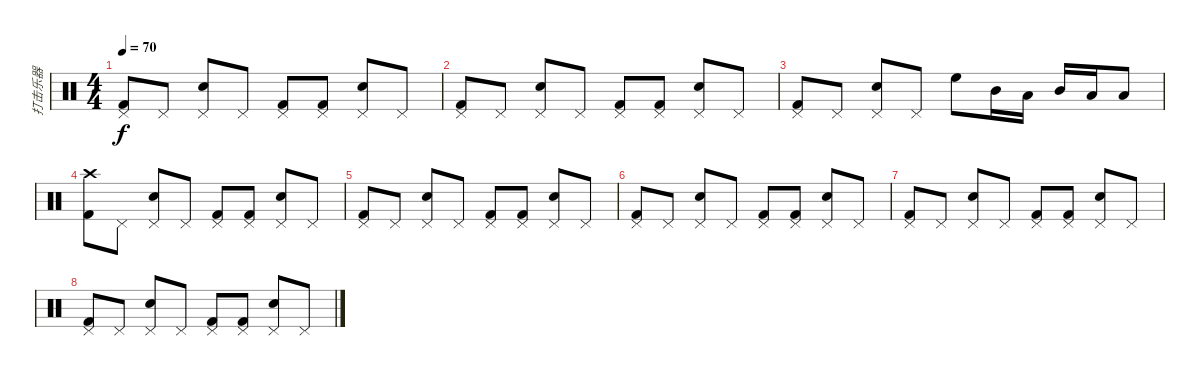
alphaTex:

\track ("打击乐器" "打击乐器") {instrument percussion}
\staff {score}
\articulation defaults
\ts (4 4)
\tempo 70
\clef neutral
\ks c
("Pedal Hi-Hat (hit)" "Kick (hit) 2").8{dy f} "Pedal Hi-Hat (hit)".8 ("Pedal Hi-Hat (hit)" "Snare (hit) 2").8 "Pedal Hi-Hat (hit)".8 ("Pedal Hi-Hat (hit)" "Kick (hit) 2").8 ("Pedal Hi-Hat (hit)" "Kick (hit) 2").8 ("Pedal Hi-Hat (hit)" "Snare (hit) 2").8 "Pedal Hi-Hat (hit)".8 |
("Pedal Hi-Hat (hit)" "Kick (hit) 2").8 "Pedal Hi-Hat (hit)".8 ("Pedal Hi-Hat (hit)" "Snare (hit) 2").8 "Pedal Hi-Hat (hit)".8 ("Pedal Hi-Hat (hit)" "Kick (hit) 2").8 ("Pedal Hi-Hat (hit)" "Kick (hit) 2").8 ("Pedal Hi-Hat (hit)" "Snare (hit) 2").8 "Pedal Hi-Hat (hit)".8 |
("Pedal Hi-Hat (hit)" "Kick (hit) 2").8 "Pedal Hi-Hat (hit)".8 ("Pedal Hi-Hat (hit)" "Snare (hit) 2").8 "Pedal Hi-Hat (hit)".8 "High Floor Tom (hit)".8 "Mid Tom (hit)".16 "Low Tom (hit)".16 "Mid Tom (hit)".16 "Low Tom (hit)".16 "Low Floor Tom (hit)".8 |
("Crash high (hit)" "Kick (hit) 2").8 "Pedal Hi-Hat (hit)".8 ("Pedal Hi-Hat (hit)" "Snare (hit) 2").8 "Pedal Hi-Hat (hit)".8 ("Pedal Hi-Hat (hit)" "Kick (hit) 2").8 ("Pedal Hi-Hat (hit)" "Kick (hit) 2").8 ("Pedal Hi-Hat (hit)" "Snare (hit) 2").8 "Pedal Hi-Hat (hit)".8 |
("Pedal Hi-Hat (hit)" "Kick (hit) 2").8 "Pedal Hi-Hat (hit)".8 ("Pedal Hi-Hat (hit)" "Snare (hit) 2").8 "Pedal Hi-Hat (hit)".8 ("Pedal Hi-Hat (hit)" "Kick (hit) 2").8 ("Pedal Hi-Hat (hit)" "Kick (hit) 2").8 ("Pedal Hi-Hat (hit)" "Snare (hit) 2").8 "Pedal Hi-Hat (hit)".8 |
("Pedal Hi-Hat (hit)" "Kick (hit) 2").8 "Pedal Hi-Hat (hit)".8 ("Pedal Hi-Hat (hit)" "Snare (hit) 2").8 "Pedal Hi-Hat (hit)".8 ("Pedal Hi-Hat (hit)" "Kick (hit) 2").8 ("Pedal Hi-Hat (hit)" "Kick (hit) 2").8 ("Pedal Hi-Hat (hit)" "Snare (hit) 2").8 "Pedal Hi-Hat (hit)".8 |
("Pedal Hi-Hat (hit)" "Kick (hit) 2").8 "Pedal Hi-Hat (hit)".8 ("Pedal Hi-Hat (hit)" "Snare (hit) 2").8 "Pedal Hi-Hat (hit)".8 ("Pedal Hi-Hat (hit)" "Kick (hit) 2").8 ("Pedal Hi-Hat (hit)" "Kick (hit) 2").8 ("Pedal Hi-Hat (hit)" "Snare (hit) 2").8 "Pedal Hi-Hat (hit)".8 |
("Pedal Hi-Hat (hit)" "Kick (hit) 2").8 "Pedal Hi-Hat (hit)".8 ("Pedal Hi-Hat (hit)" "Snare (hit) 2").8 "Pedal Hi-Hat (hit)".8 ("Pedal Hi-Hat (hit)" "Kick (hit) 2").8 ("Pedal Hi-Hat (hit)" "Kick (hit) 2").8 ("Pedal Hi-Hat (hit)" "Snare (hit) 2").8 "Pedal Hi-Hat (hit)".8
